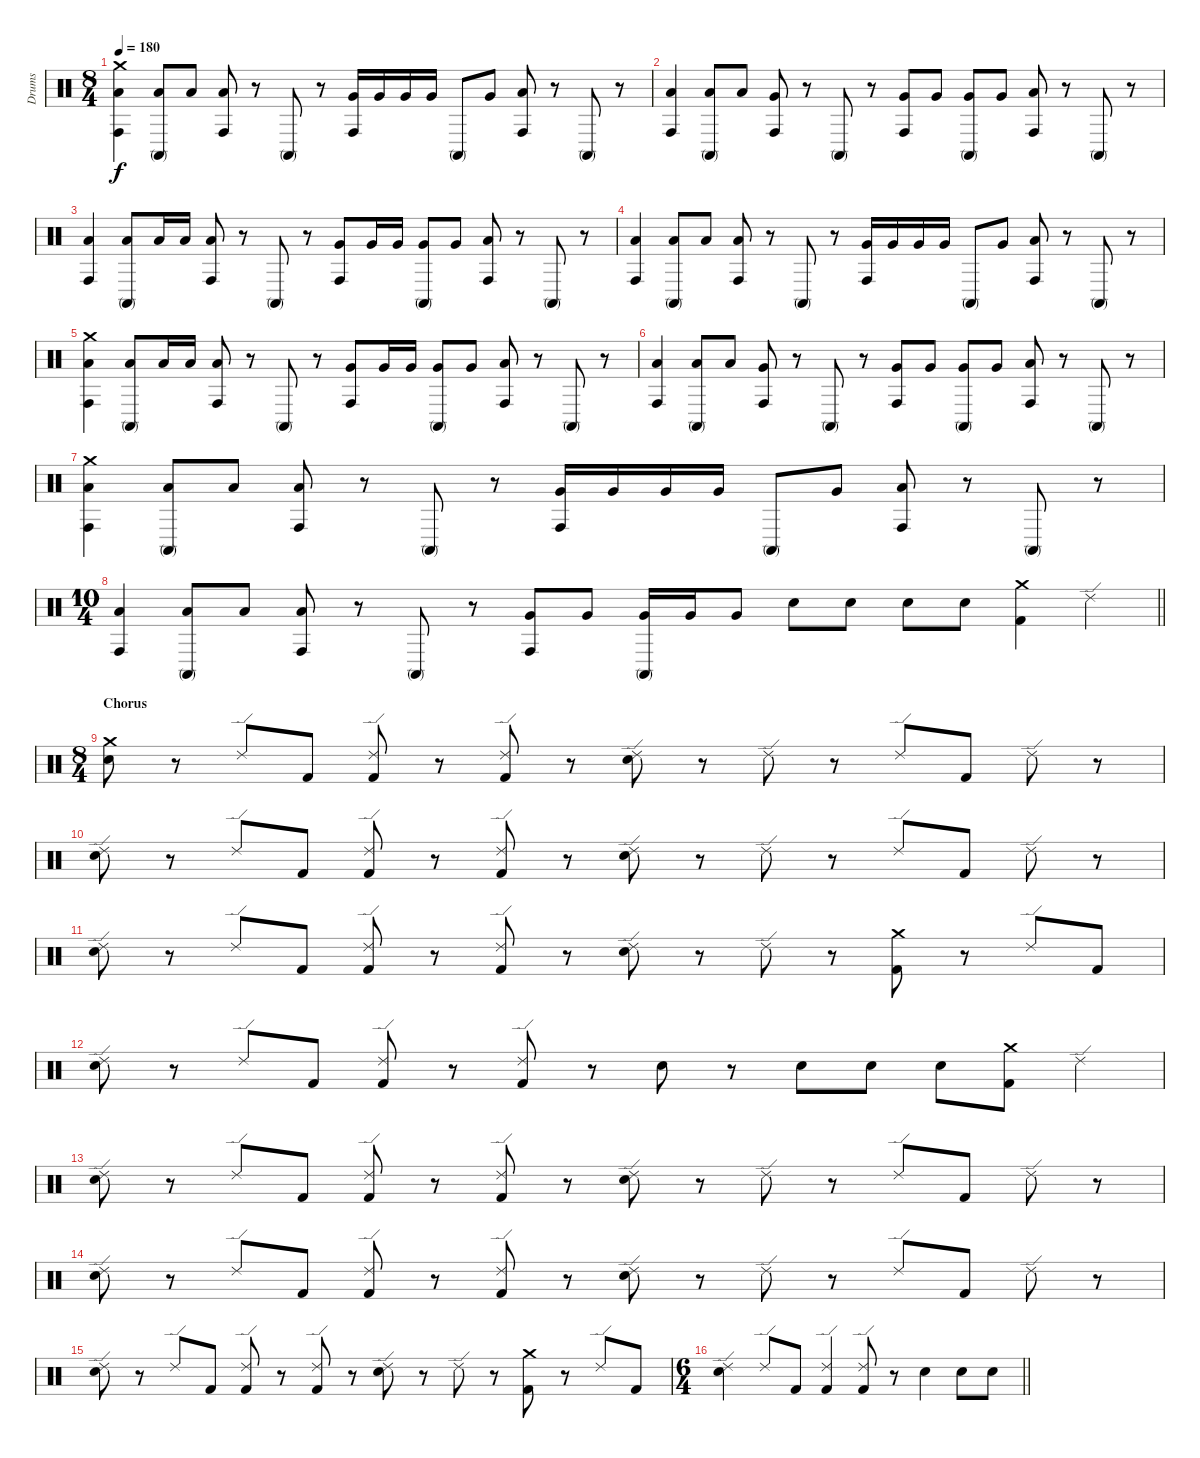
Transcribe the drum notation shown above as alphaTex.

\track ("Drums" "Drums") {instrument percussion}
\staff {score}
\articulation defaults
\ts (8 4)
\tempo 180
\clef neutral
\ks c
("Crash medium (hit)" "Conga high (hit)" "Low Floor Tom (hit)").4{dy f} ("Conga high (mute)" "Low Floor Tom (hit)").8 "Low Floor Tom (hit)".8 ("Conga high (hit)" "Low Tom (hit)").8 r.8 "Conga high (mute)".8 r.8 ("Conga high (hit)" "Very Low Tom (hit)").16 "Very Low Tom (hit)".16 "Very Low Tom (hit)".16 "Very Low Tom (hit)".16 "Conga high (mute)".8 "Very Low Tom (hit)".8 ("Conga high (hit)" "Low Tom (hit)").8 r.8 "Conga high (mute)".8 r.8 |
("Conga high (hit)" "Low Floor Tom (hit)").4 ("Conga high (mute)" "Low Floor Tom (hit)").8 "Low Floor Tom (hit)".8 ("Conga high (hit)" "Very Low Tom (hit)").8 r.8 "Conga high (mute)".8 r.8 ("Conga high (hit)" "Very Low Tom (hit)").8 "Very Low Tom (hit)".8 ("Conga high (mute)" "Very Low Tom (hit)").8 "Very Low Tom (hit)".8 ("Conga high (hit)" "Low Tom (hit)").8 r.8 "Conga high (mute)".8 r.8 |
("Conga high (hit)" "Low Floor Tom (hit)").4 ("Conga high (mute)" "Low Floor Tom (hit)").8 "Low Floor Tom (hit)".16 "Low Floor Tom (hit)".16 ("Conga high (hit)" "Low Tom (hit)").8 r.8 "Conga high (mute)".8 r.8 ("Conga high (hit)" "Very Low Tom (hit)").8 "Very Low Tom (hit)".16 "Very Low Tom (hit)".16 ("Conga high (mute)" "Very Low Tom (hit)").8 "Very Low Tom (hit)".8 ("Conga high (hit)" "Low Tom (hit)").8 r.8 "Conga high (mute)".8 r.8 |
("Conga high (hit)" "Low Floor Tom (hit)").4 ("Conga high (mute)" "Low Floor Tom (hit)").8 "Low Floor Tom (hit)".8 ("Conga high (hit)" "Low Tom (hit)").8 r.8 "Conga high (mute)".8 r.8 ("Conga high (hit)" "Very Low Tom (hit)").16 "Very Low Tom (hit)".16 "Very Low Tom (hit)".16 "Very Low Tom (hit)".16 "Conga high (mute)".8 "Very Low Tom (hit)".8 ("Conga high (hit)" "Low Tom (hit)").8 r.8 "Conga high (mute)".8 r.8 |
("Crash medium (hit)" "Conga high (hit)" "Low Floor Tom (hit)").4 ("Conga high (mute)" "Low Floor Tom (hit)").8 "Low Floor Tom (hit)".16 "Low Floor Tom (hit)".16 ("Conga high (hit)" "Low Tom (hit)").8 r.8 "Conga high (mute)".8 r.8 ("Conga high (hit)" "Very Low Tom (hit)").8 "Very Low Tom (hit)".16 "Very Low Tom (hit)".16 ("Conga high (mute)" "Very Low Tom (hit)").8 "Very Low Tom (hit)".8 ("Conga high (hit)" "Low Tom (hit)").8 r.8 "Conga high (mute)".8 r.8 |
("Conga high (hit)" "Low Floor Tom (hit)").4 ("Conga high (mute)" "Low Floor Tom (hit)").8 "Low Floor Tom (hit)".8 ("Conga high (hit)" "Very Low Tom (hit)").8 r.8 "Conga high (mute)".8 r.8 ("Conga high (hit)" "Very Low Tom (hit)").8 "Very Low Tom (hit)".8 ("Conga high (mute)" "Very Low Tom (hit)").8 "Very Low Tom (hit)".8 ("Conga high (hit)" "Low Tom (hit)").8 r.8 "Conga high (mute)".8 r.8 |
("Crash medium (hit)" "Conga high (hit)" "Low Floor Tom (hit)").4 ("Conga high (mute)" "Low Floor Tom (hit)").8 "Low Floor Tom (hit)".8 ("Conga high (hit)" "Low Tom (hit)").8 r.8 "Conga high (mute)".8 r.8 ("Conga high (hit)" "Very Low Tom (hit)").16 "Very Low Tom (hit)".16 "Very Low Tom (hit)".16 "Very Low Tom (hit)".16 "Conga high (mute)".8 "Very Low Tom (hit)".8 ("Conga high (hit)" "Low Tom (hit)").8 r.8 "Conga high (mute)".8 r.8 |
\ts (10 4)
\barLineRight lightlight
("Conga high (hit)" "Low Floor Tom (hit)").4 ("Conga high (mute)" "Low Floor Tom (hit)").8 "Low Floor Tom (hit)".8 ("Conga high (hit)" "Low Tom (hit)").8 r.8 "Conga high (mute)".8 r.8 ("Conga high (hit)" "Very Low Tom (hit)").8 "Very Low Tom (hit)".8 ("Conga high (mute)" "Very Low Tom (hit)").16 "Very Low Tom (hit)".16 "Very Low Tom (hit)".8 "Snare (hit) 2".8{volume 10} "Snare (hit) 2".8 "Snare (hit) 2".8 "Snare (hit) 2".8 ("Crash medium (hit)" "Kick (hit) 2").4 "Ride (edge) 2".4 |
\ts (8 4)
\section ("" "Chorus")
("Crash medium (hit)" "Snare (hit) 2").8 r.8 "Ride (edge) 2".8 "Kick (hit) 2".8 ("Ride (edge) 2" "Kick (hit) 2").8 r.8 ("Kick (hit) 2" "Ride (edge) 2").8 r.8 ("Ride (edge) 2" "Snare (hit) 2").8 r.8 "Ride (edge) 2".8 r.8 "Ride (edge) 2".8 "Kick (hit) 2".8 "Ride (edge) 2".8 r.8 |
("Ride (edge) 2" "Snare (hit) 2").8 r.8 "Ride (edge) 2".8 "Kick (hit) 2".8 ("Ride (edge) 2" "Kick (hit) 2").8 r.8 ("Ride (edge) 2" "Kick (hit) 2").8 r.8 ("Ride (edge) 2" "Snare (hit) 2").8 r.8 "Ride (edge) 2".8 r.8 "Ride (edge) 2".8 "Kick (hit) 2".8 "Ride (edge) 2".8 r.8 |
("Ride (edge) 2" "Snare (hit) 2").8 r.8 "Ride (edge) 2".8 "Kick (hit) 2".8 ("Ride (edge) 2" "Kick (hit) 2").8 r.8 ("Ride (edge) 2" "Kick (hit) 2").8 r.8 ("Ride (edge) 2" "Snare (hit) 2").8 r.8 "Ride (edge) 2".8 r.8 ("Crash medium (hit)" "Kick (hit) 2").8 r.8 "Ride (edge) 2".8 "Kick (hit) 2".8 |
("Ride (edge) 2" "Snare (hit) 2").8 r.8 "Ride (edge) 2".8 "Kick (hit) 2".8 ("Ride (edge) 2" "Kick (hit) 2").8 r.8 ("Ride (edge) 2" "Kick (hit) 2").8 r.8 "Snare (hit) 2".8 r.8 "Snare (hit) 2".8 "Snare (hit) 2".8 "Snare (hit) 2".8 ("Crash medium (hit)" "Kick (hit) 2").8 "Ride (edge) 2".4 |
("Ride (edge) 2" "Snare (hit) 2").8 r.8 "Ride (edge) 2".8 "Kick (hit) 2".8 ("Ride (edge) 2" "Kick (hit) 2").8 r.8 ("Kick (hit) 2" "Ride (edge) 2").8 r.8 ("Ride (edge) 2" "Snare (hit) 2").8 r.8 "Ride (edge) 2".8 r.8 "Ride (edge) 2".8 "Kick (hit) 2".8 "Ride (edge) 2".8 r.8 |
("Ride (edge) 2" "Snare (hit) 2").8 r.8 "Ride (edge) 2".8 "Kick (hit) 2".8 ("Ride (edge) 2" "Kick (hit) 2").8 r.8 ("Ride (edge) 2" "Kick (hit) 2").8 r.8 ("Ride (edge) 2" "Snare (hit) 2").8 r.8 "Ride (edge) 2".8 r.8 "Ride (edge) 2".8 "Kick (hit) 2".8 "Ride (edge) 2".8 r.8 |
("Ride (edge) 2" "Snare (hit) 2").8 r.8 "Ride (edge) 2".8 "Kick (hit) 2".8 ("Ride (edge) 2" "Kick (hit) 2").8 r.8 ("Ride (edge) 2" "Kick (hit) 2").8 r.8 ("Ride (edge) 2" "Snare (hit) 2").8 r.8 "Ride (edge) 2".8 r.8 ("Crash medium (hit)" "Kick (hit) 2").8 r.8 "Ride (edge) 2".8 "Kick (hit) 2".8 |
\ts (6 4)
\barLineRight lightlight
("Ride (edge) 2" "Snare (hit) 2").4 "Ride (edge) 2".8 "Kick (hit) 2".8 ("Ride (edge) 2" "Kick (hit) 2").4 ("Ride (edge) 2" "Kick (hit) 2").8 r.8 "Snare (hit) 2".4 "Snare (hit) 2".8 "Snare (hit) 2".8
